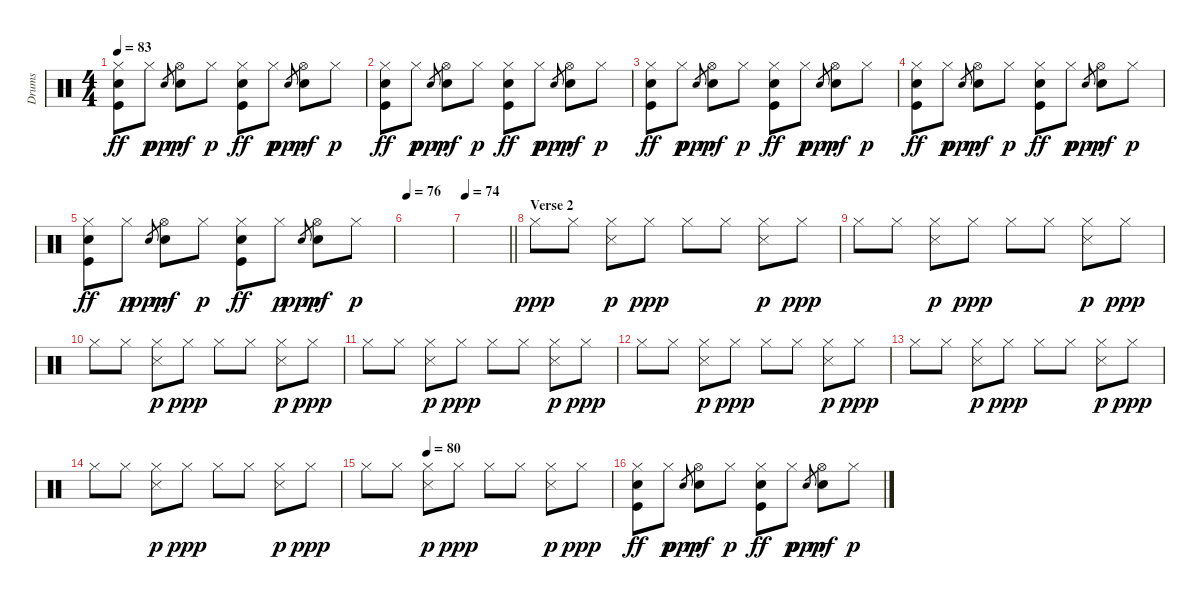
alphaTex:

\track ("Drums" "Drums") {instrument percussion}
\staff {score}
\articulation defaults
\ts (4 4)
\tempo 83
\clef neutral
\ks c
("Hi-Hat (closed)" "Snare (hit) 2" "Kick (hit)").8{dy ff} "Hi-Hat (closed)".8{dy p} "Snare (hit) 2"{x}.8{gr dy ppp} ("Hi-Hat (open)" "Snare (hit) 2").8{dy mf} "Hi-Hat (closed)".8{dy p} ("Hi-Hat (closed)" "Snare (hit) 2" "Kick (hit)").8{dy ff} "Hi-Hat (closed)".8{dy p} "Snare (hit) 2"{x}.8{gr dy ppp} ("Hi-Hat (open)" "Snare (hit) 2").8{dy mf} "Hi-Hat (closed)".8{dy p} |
("Hi-Hat (closed)" "Snare (hit) 2" "Kick (hit)").8{dy ff} "Hi-Hat (closed)".8{dy p} "Snare (hit) 2"{x}.8{gr dy ppp} ("Hi-Hat (open)" "Snare (hit) 2").8{dy mf} "Hi-Hat (closed)".8{dy p} ("Hi-Hat (closed)" "Snare (hit) 2" "Kick (hit)").8{dy ff} "Hi-Hat (closed)".8{dy p} "Snare (hit) 2"{x}.8{gr dy ppp} ("Hi-Hat (open)" "Snare (hit) 2").8{dy mf} "Hi-Hat (closed)".8{dy p} |
("Hi-Hat (closed)" "Snare (hit) 2" "Kick (hit)").8{dy ff} "Hi-Hat (closed)".8{dy p} "Snare (hit) 2"{x}.8{gr dy ppp} ("Hi-Hat (open)" "Snare (hit) 2").8{dy mf} "Hi-Hat (closed)".8{dy p} ("Hi-Hat (closed)" "Snare (hit) 2" "Kick (hit)").8{dy ff} "Hi-Hat (closed)".8{dy p} "Snare (hit) 2"{x}.8{gr dy ppp} ("Hi-Hat (open)" "Snare (hit) 2").8{dy mf} "Hi-Hat (closed)".8{dy p} |
("Hi-Hat (closed)" "Snare (hit) 2" "Kick (hit)").8{dy ff} "Hi-Hat (closed)".8{dy p} "Snare (hit) 2"{x}.8{gr dy ppp} ("Hi-Hat (open)" "Snare (hit) 2").8{dy mf} "Hi-Hat (closed)".8{dy p} ("Hi-Hat (closed)" "Snare (hit) 2" "Kick (hit)").8{dy ff} "Hi-Hat (closed)".8{dy p} "Snare (hit) 2"{x}.8{gr dy ppp} ("Hi-Hat (open)" "Snare (hit) 2").8{dy mf} "Hi-Hat (closed)".8{dy p} |
("Hi-Hat (closed)" "Snare (hit) 2" "Kick (hit)").8{dy ff} "Hi-Hat (closed)".8{dy p} "Snare (hit) 2"{x}.8{gr dy ppp} ("Hi-Hat (open)" "Snare (hit) 2").8{dy mf} "Hi-Hat (closed)".8{dy p} ("Hi-Hat (closed)" "Snare (hit) 2" "Kick (hit)").8{dy ff} "Hi-Hat (closed)".8{dy p} "Snare (hit) 2"{x}.8{gr dy ppp} ("Hi-Hat (open)" "Snare (hit) 2").8{dy mf} "Hi-Hat (closed)".8{dy p} |
\tempo 76
|
\tempo 74
\barLineRight lightlight
|
\section ("" "Verse 2")
"Hi-Hat (closed)".8{dy ppp} "Hi-Hat (closed)".8 ("Hi-Hat (closed)" "Snare (side stick) 3").8{dy p} "Hi-Hat (closed)".8{dy ppp} "Hi-Hat (closed)".8 "Hi-Hat (closed)".8 ("Hi-Hat (closed)" "Snare (side stick) 3").8{dy p} "Hi-Hat (closed)".8{dy ppp} |
"Hi-Hat (closed)".8 "Hi-Hat (closed)".8 ("Hi-Hat (closed)" "Snare (side stick) 3").8{dy p} "Hi-Hat (closed)".8{dy ppp} "Hi-Hat (closed)".8 "Hi-Hat (closed)".8 ("Hi-Hat (closed)" "Snare (side stick) 3").8{dy p} "Hi-Hat (closed)".8{dy ppp} |
"Hi-Hat (closed)".8 "Hi-Hat (closed)".8 ("Hi-Hat (closed)" "Snare (side stick) 3").8{dy p} "Hi-Hat (closed)".8{dy ppp} "Hi-Hat (closed)".8 "Hi-Hat (closed)".8 ("Hi-Hat (closed)" "Snare (side stick) 3").8{dy p} "Hi-Hat (closed)".8{dy ppp} |
"Hi-Hat (closed)".8 "Hi-Hat (closed)".8 ("Hi-Hat (closed)" "Snare (side stick) 3").8{dy p} "Hi-Hat (closed)".8{dy ppp} "Hi-Hat (closed)".8 "Hi-Hat (closed)".8 ("Hi-Hat (closed)" "Snare (side stick) 3").8{dy p} "Hi-Hat (closed)".8{dy ppp} |
"Hi-Hat (closed)".8 "Hi-Hat (closed)".8 ("Hi-Hat (closed)" "Snare (side stick) 3").8{dy p} "Hi-Hat (closed)".8{dy ppp} "Hi-Hat (closed)".8 "Hi-Hat (closed)".8 ("Hi-Hat (closed)" "Snare (side stick) 3").8{dy p} "Hi-Hat (closed)".8{dy ppp} |
"Hi-Hat (closed)".8 "Hi-Hat (closed)".8 ("Hi-Hat (closed)" "Snare (side stick) 3").8{dy p} "Hi-Hat (closed)".8{dy ppp} "Hi-Hat (closed)".8 "Hi-Hat (closed)".8 ("Hi-Hat (closed)" "Snare (side stick) 3").8{dy p} "Hi-Hat (closed)".8{dy ppp} |
"Hi-Hat (closed)".8 "Hi-Hat (closed)".8 ("Hi-Hat (closed)" "Snare (side stick) 3").8{dy p} "Hi-Hat (closed)".8{dy ppp} "Hi-Hat (closed)".8 "Hi-Hat (closed)".8 ("Hi-Hat (closed)" "Snare (side stick) 3").8{dy p} "Hi-Hat (closed)".8{dy ppp} |
\tempo (80 0.25)
"Hi-Hat (closed)".8 "Hi-Hat (closed)".8 ("Hi-Hat (closed)" "Snare (side stick) 3").8{dy p} "Hi-Hat (closed)".8{dy ppp} "Hi-Hat (closed)".8 "Hi-Hat (closed)".8 ("Hi-Hat (closed)" "Snare (side stick) 3").8{dy p} "Hi-Hat (closed)".8{dy ppp} |
("Hi-Hat (closed)" "Snare (hit) 2" "Kick (hit)").8{dy ff} "Hi-Hat (closed)".8{dy p} "Snare (hit) 2"{x}.8{gr dy ppp} ("Hi-Hat (open)" "Snare (hit) 2").8{dy mf} "Hi-Hat (closed)".8{dy p} ("Hi-Hat (closed)" "Snare (hit) 2" "Kick (hit)").8{dy ff} "Hi-Hat (closed)".8{dy p} "Snare (hit) 2"{x}.8{gr dy ppp} ("Hi-Hat (open)" "Snare (hit) 2").8{dy mf} "Hi-Hat (closed)".8{dy p}
